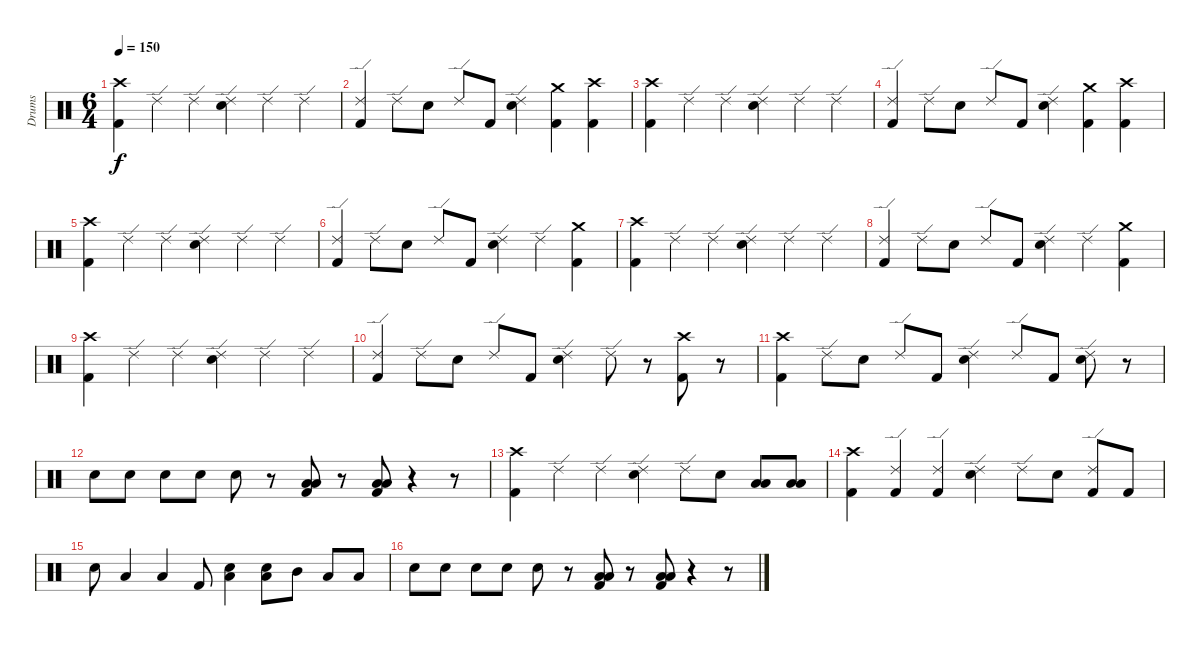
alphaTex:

\track ("Drums" "Drums") {instrument percussion}
\staff {score}
\articulation defaults
\ts (6 4)
\tempo 150
\clef neutral
\ks c
("Crash high (hit)" "Kick (hit) 2").4{dy f} "Ride (edge) 2".4 "Ride (edge) 2".4 ("Ride (edge) 2" "Electric Snare (hit)").4 "Ride (edge) 2".4 "Ride (edge) 2".4 |
("Ride (edge) 2" "Kick (hit) 2").4 "Ride (edge) 2".8 "Electric Snare (hit)".8 "Ride (edge) 2".8 "Kick (hit) 2".8 ("Ride (edge) 2" "Electric Snare (hit)").4 ("Crash medium (hit)" "Kick (hit) 2").4 ("Crash high (hit)" "Kick (hit) 2").4 |
("Crash high (hit)" "Kick (hit) 2").4 "Ride (edge) 2".4 "Ride (edge) 2".4 ("Ride (edge) 2" "Electric Snare (hit)").4 "Ride (edge) 2".4 "Ride (edge) 2".4 |
("Ride (edge) 2" "Kick (hit) 2").4 "Ride (edge) 2".8 "Electric Snare (hit)".8 "Ride (edge) 2".8 "Kick (hit) 2".8 ("Ride (edge) 2" "Electric Snare (hit)").4 ("Crash medium (hit)" "Kick (hit) 2").4 ("Crash high (hit)" "Kick (hit) 2").4 |
("Crash high (hit)" "Kick (hit) 2").4 "Ride (edge) 2".4 "Ride (edge) 2".4 ("Ride (edge) 2" "Electric Snare (hit)").4 "Ride (edge) 2".4 "Ride (edge) 2".4 |
("Ride (edge) 2" "Kick (hit) 2").4 "Ride (edge) 2".8 "Electric Snare (hit)".8 "Ride (edge) 2".8 "Kick (hit) 2".8 ("Ride (edge) 2" "Electric Snare (hit)").4 "Ride (edge) 2".4 ("Crash medium (hit)" "Kick (hit) 2").4 |
("Crash high (hit)" "Kick (hit) 2").4 "Ride (edge) 2".4 "Ride (edge) 2".4 ("Ride (edge) 2" "Electric Snare (hit)").4 "Ride (edge) 2".4 "Ride (edge) 2".4 |
("Ride (edge) 2" "Kick (hit) 2").4 "Ride (edge) 2".8 "Electric Snare (hit)".8 "Ride (edge) 2".8 "Kick (hit) 2".8 ("Ride (edge) 2" "Electric Snare (hit)").4 "Ride (edge) 2".4 ("Crash medium (hit)" "Kick (hit) 2").4 |
("Crash high (hit)" "Kick (hit) 2").4 "Ride (edge) 2".4 "Ride (edge) 2".4 ("Ride (edge) 2" "Electric Snare (hit)").4 "Ride (edge) 2".4 "Ride (edge) 2".4 |
("Ride (edge) 2" "Kick (hit) 2").4 "Ride (edge) 2".8 "Electric Snare (hit)".8 "Ride (edge) 2".8 "Kick (hit) 2".8 ("Ride (edge) 2" "Electric Snare (hit)").4 "Ride (edge) 2".8 r.8 ("Crash high (hit)" "Kick (hit) 2").8 r.8 |
("Crash high (hit)" "Kick (hit) 2").4 "Ride (edge) 2".8 "Electric Snare (hit)".8 "Ride (edge) 2".8 "Kick (hit) 2".8 ("Ride (edge) 2" "Electric Snare (hit)").4 "Ride (edge) 2".8 "Kick (hit) 2".8 ("Ride (edge) 2" "Electric Snare (hit)").8 r.8 |
"Electric Snare (hit)".8 "Electric Snare (hit)".8 "Electric Snare (hit)".8 "Electric Snare (hit)".8 "Electric Snare (hit)".8 r.8 ("Low Tom (hit)" "Low Floor Tom (hit)" "Kick (hit) 2").8 r.8 ("Low Tom (hit)" "Low Floor Tom (hit)" "Kick (hit) 2").8 r.4 r.8 |
("Crash high (hit)" "Kick (hit) 2").4 "Ride (edge) 2".4 "Ride (edge) 2".4 ("Ride (edge) 2" "Electric Snare (hit)").4 "Ride (edge) 2".8 "Electric Snare (hit)".8 ("Low Tom (hit)" "Low Floor Tom (hit)").8 ("Low Tom (hit)" "Low Floor Tom (hit)").8 |
("Crash high (hit)" "Kick (hit) 2").4 ("Ride (edge) 2" "Kick (hit) 2").4 ("Ride (edge) 2" "Kick (hit) 2").4 ("Ride (edge) 2" "Electric Snare (hit)").4 "Ride (edge) 2".8 "Electric Snare (hit)".8 ("Ride (edge) 2" "Kick (hit) 2").8 "Kick (hit) 2".8 |
"Electric Snare (hit)".8 "Low Tom (hit)".4 "Low Floor Tom (hit)".4 "Kick (hit) 2".8 ("Low Floor Tom (hit)" "Electric Snare (hit)").4 ("Low Floor Tom (hit)" "Electric Snare (hit)").8 "Mid Tom (hit)".8 "Low Tom (hit)".8 "Low Floor Tom (hit)".8 |
"Electric Snare (hit)".8 "Electric Snare (hit)".8 "Electric Snare (hit)".8 "Electric Snare (hit)".8 "Electric Snare (hit)".8 r.8 ("Low Tom (hit)" "Low Floor Tom (hit)" "Kick (hit) 2").8 r.8 ("Low Tom (hit)" "Low Floor Tom (hit)" "Kick (hit) 2").8 r.4 r.8
